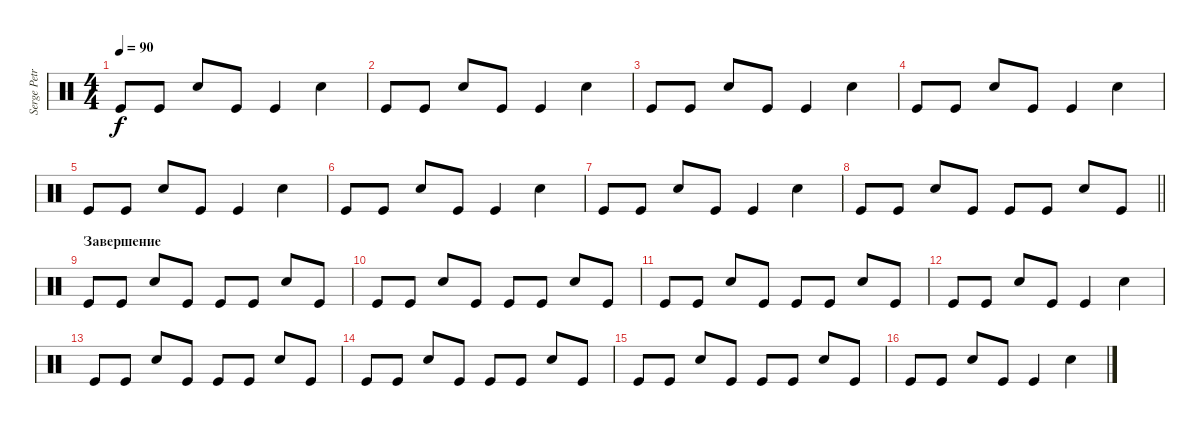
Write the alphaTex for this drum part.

\track ("Serge Petrone" "Serge Petr") {instrument percussion}
\staff {score}
\articulation defaults
\ts (4 4)
\tempo 90
\clef neutral
\ks c "Kick (hit)".8{dy f} "Kick (hit)".8 "Snare (hit) 2".8 "Kick (hit)".8 "Kick (hit)".4 "Snare (hit) 2".4
|
"Kick (hit)".8 "Kick (hit)".8 "Snare (hit) 2".8 "Kick (hit)".8 "Kick (hit)".4 "Snare (hit) 2".4 |
"Kick (hit)".8 "Kick (hit)".8 "Snare (hit) 2".8 "Kick (hit)".8 "Kick (hit)".4 "Snare (hit) 2".4 |
"Kick (hit)".8 "Kick (hit)".8 "Snare (hit) 2".8 "Kick (hit)".8 "Kick (hit)".4 "Snare (hit) 2".4 |
"Kick (hit)".8 "Kick (hit)".8 "Snare (hit) 2".8 "Kick (hit)".8 "Kick (hit)".4 "Snare (hit) 2".4 |
"Kick (hit)".8 "Kick (hit)".8 "Snare (hit) 2".8 "Kick (hit)".8 "Kick (hit)".4 "Snare (hit) 2".4 |
"Kick (hit)".8 "Kick (hit)".8 "Snare (hit) 2".8 "Kick (hit)".8 "Kick (hit)".4 "Snare (hit) 2".4 |
\barLineRight lightlight "Kick (hit)".8 "Kick (hit)".8 "Snare (hit) 2".8 "Kick (hit)".8 "Kick (hit)".8 "Kick (hit)".8 "Snare (hit) 2".8 "Kick (hit)".8
|
\section ("" "Завершение")
"Kick (hit)".8 "Kick (hit)".8 "Snare (hit) 2".8 "Kick (hit)".8 "Kick (hit)".8 "Kick (hit)".8 "Snare (hit) 2".8 "Kick (hit)".8 |
"Kick (hit)".8 "Kick (hit)".8 "Snare (hit) 2".8 "Kick (hit)".8 "Kick (hit)".8 "Kick (hit)".8 "Snare (hit) 2".8 "Kick (hit)".8 |
"Kick (hit)".8 "Kick (hit)".8 "Snare (hit) 2".8 "Kick (hit)".8 "Kick (hit)".8 "Kick (hit)".8 "Snare (hit) 2".8 "Kick (hit)".8 |
"Kick (hit)".8 "Kick (hit)".8 "Snare (hit) 2".8 "Kick (hit)".8 "Kick (hit)".4 "Snare (hit) 2".4 |
"Kick (hit)".8 "Kick (hit)".8 "Snare (hit) 2".8 "Kick (hit)".8 "Kick (hit)".8 "Kick (hit)".8 "Snare (hit) 2".8 "Kick (hit)".8 |
"Kick (hit)".8 "Kick (hit)".8 "Snare (hit) 2".8 "Kick (hit)".8 "Kick (hit)".8 "Kick (hit)".8 "Snare (hit) 2".8 "Kick (hit)".8 |
"Kick (hit)".8 "Kick (hit)".8 "Snare (hit) 2".8 "Kick (hit)".8 "Kick (hit)".8 "Kick (hit)".8 "Snare (hit) 2".8 "Kick (hit)".8 |
"Kick (hit)".8 "Kick (hit)".8 "Snare (hit) 2".8 "Kick (hit)".8 "Kick (hit)".4 "Snare (hit) 2".4
